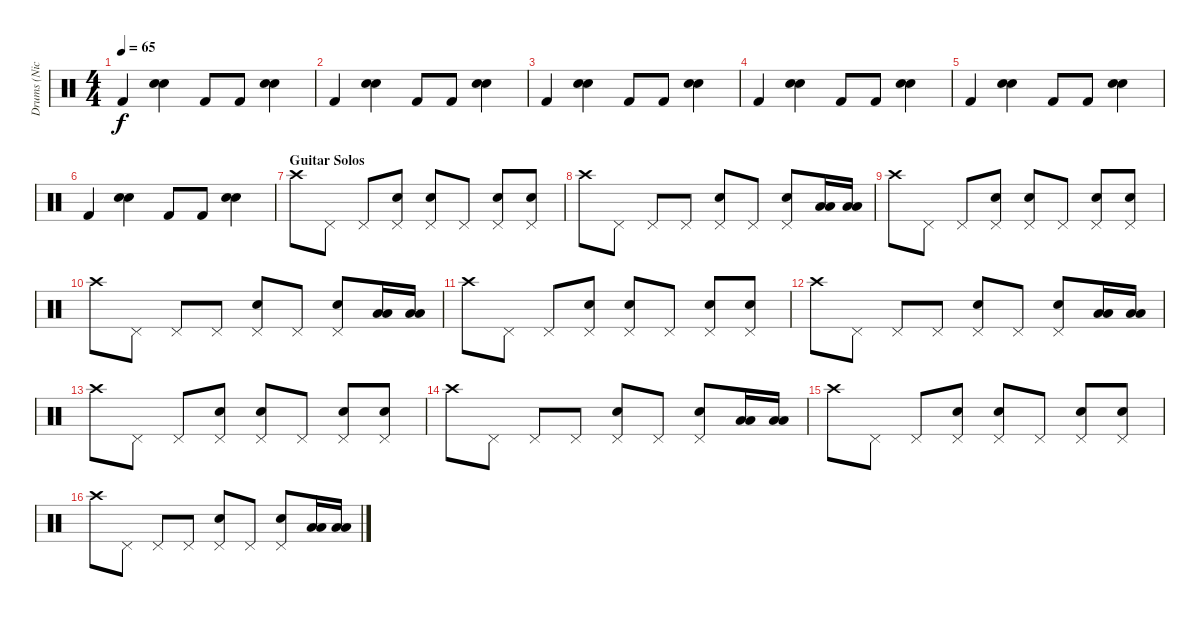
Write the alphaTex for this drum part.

\track ("Drums (Nick)" "Drums (Nic") {instrument percussion}
\staff {score}
\articulation defaults
\ts (4 4)
\tempo 65
\clef neutral
\ks c "Kick (hit) 2".4{dy f}
("Snare (hit) 2" "Electric Snare (hit)").4 "Kick (hit) 2".8 "Kick (hit) 2".8 ("Snare (hit) 2" "Electric Snare (hit)").4 |
"Kick (hit) 2".4 ("Snare (hit) 2" "Electric Snare (hit)").4 "Kick (hit) 2".8 "Kick (hit) 2".8 ("Snare (hit) 2" "Electric Snare (hit)").4 |
"Kick (hit) 2".4 ("Snare (hit) 2" "Electric Snare (hit)").4 "Kick (hit) 2".8 "Kick (hit) 2".8 ("Snare (hit) 2" "Electric Snare (hit)").4 |
"Kick (hit) 2".4 ("Snare (hit) 2" "Electric Snare (hit)").4 "Kick (hit) 2".8 "Kick (hit) 2".8 ("Snare (hit) 2" "Electric Snare (hit)").4 |
"Kick (hit) 2".4 ("Snare (hit) 2" "Electric Snare (hit)").4 "Kick (hit) 2".8 "Kick (hit) 2".8 ("Snare (hit) 2" "Electric Snare (hit)").4 |
"Kick (hit) 2".4 ("Snare (hit) 2" "Electric Snare (hit)").4 "Kick (hit) 2".8 "Kick (hit) 2".8 ("Snare (hit) 2" "Electric Snare (hit)").4 |
\section ("" "Guitar Solos")
"Crash high (hit)".8 "Pedal Hi-Hat (hit)".8 "Pedal Hi-Hat (hit)".8 ("Pedal Hi-Hat (hit)" "Electric Snare (hit)").8 ("Pedal Hi-Hat (hit)" "Electric Snare (hit)").8 "Pedal Hi-Hat (hit)".8 ("Pedal Hi-Hat (hit)" "Electric Snare (hit)").8 ("Pedal Hi-Hat (hit)" "Electric Snare (hit)").8 |
"Crash high (hit)".8 "Pedal Hi-Hat (hit)".8 "Pedal Hi-Hat (hit)".8 "Pedal Hi-Hat (hit)".8 ("Pedal Hi-Hat (hit)" "Electric Snare (hit)").8 "Pedal Hi-Hat (hit)".8 ("Pedal Hi-Hat (hit)" "Electric Snare (hit)").8 ("Low Tom (hit)" "Low Tom (hit)").16 ("Low Tom (hit)" "Low Tom (hit)").16 |
"Crash high (hit)".8 "Pedal Hi-Hat (hit)".8 "Pedal Hi-Hat (hit)".8 ("Pedal Hi-Hat (hit)" "Electric Snare (hit)").8 ("Pedal Hi-Hat (hit)" "Electric Snare (hit)").8 "Pedal Hi-Hat (hit)".8 ("Pedal Hi-Hat (hit)" "Electric Snare (hit)").8 ("Pedal Hi-Hat (hit)" "Electric Snare (hit)").8 |
"Crash high (hit)".8 "Pedal Hi-Hat (hit)".8 "Pedal Hi-Hat (hit)".8 "Pedal Hi-Hat (hit)".8 ("Pedal Hi-Hat (hit)" "Electric Snare (hit)").8 "Pedal Hi-Hat (hit)".8 ("Pedal Hi-Hat (hit)" "Electric Snare (hit)").8 ("Low Tom (hit)" "Low Tom (hit)").16 ("Low Tom (hit)" "Low Tom (hit)").16 |
"Crash high (hit)".8 "Pedal Hi-Hat (hit)".8 "Pedal Hi-Hat (hit)".8 ("Pedal Hi-Hat (hit)" "Electric Snare (hit)").8 ("Pedal Hi-Hat (hit)" "Electric Snare (hit)").8 "Pedal Hi-Hat (hit)".8 ("Pedal Hi-Hat (hit)" "Electric Snare (hit)").8 ("Pedal Hi-Hat (hit)" "Electric Snare (hit)").8 |
"Crash high (hit)".8 "Pedal Hi-Hat (hit)".8 "Pedal Hi-Hat (hit)".8 "Pedal Hi-Hat (hit)".8 ("Pedal Hi-Hat (hit)" "Electric Snare (hit)").8 "Pedal Hi-Hat (hit)".8 ("Pedal Hi-Hat (hit)" "Electric Snare (hit)").8 ("Low Tom (hit)" "Low Tom (hit)").16 ("Low Tom (hit)" "Low Tom (hit)").16 |
"Crash high (hit)".8 "Pedal Hi-Hat (hit)".8 "Pedal Hi-Hat (hit)".8 ("Pedal Hi-Hat (hit)" "Electric Snare (hit)").8 ("Pedal Hi-Hat (hit)" "Electric Snare (hit)").8 "Pedal Hi-Hat (hit)".8 ("Pedal Hi-Hat (hit)" "Electric Snare (hit)").8 ("Pedal Hi-Hat (hit)" "Electric Snare (hit)").8 |
"Crash high (hit)".8 "Pedal Hi-Hat (hit)".8 "Pedal Hi-Hat (hit)".8 "Pedal Hi-Hat (hit)".8 ("Pedal Hi-Hat (hit)" "Electric Snare (hit)").8 "Pedal Hi-Hat (hit)".8 ("Pedal Hi-Hat (hit)" "Electric Snare (hit)").8 ("Low Tom (hit)" "Low Tom (hit)").16 ("Low Tom (hit)" "Low Tom (hit)").16 |
"Crash high (hit)".8 "Pedal Hi-Hat (hit)".8 "Pedal Hi-Hat (hit)".8 ("Pedal Hi-Hat (hit)" "Electric Snare (hit)").8 ("Pedal Hi-Hat (hit)" "Electric Snare (hit)").8 "Pedal Hi-Hat (hit)".8 ("Pedal Hi-Hat (hit)" "Electric Snare (hit)").8 ("Pedal Hi-Hat (hit)" "Electric Snare (hit)").8 |
"Crash high (hit)".8 "Pedal Hi-Hat (hit)".8 "Pedal Hi-Hat (hit)".8 "Pedal Hi-Hat (hit)".8 ("Pedal Hi-Hat (hit)" "Electric Snare (hit)").8 "Pedal Hi-Hat (hit)".8 ("Pedal Hi-Hat (hit)" "Electric Snare (hit)").8 ("Low Tom (hit)" "Low Tom (hit)").16 ("Low Tom (hit)" "Low Tom (hit)").16
